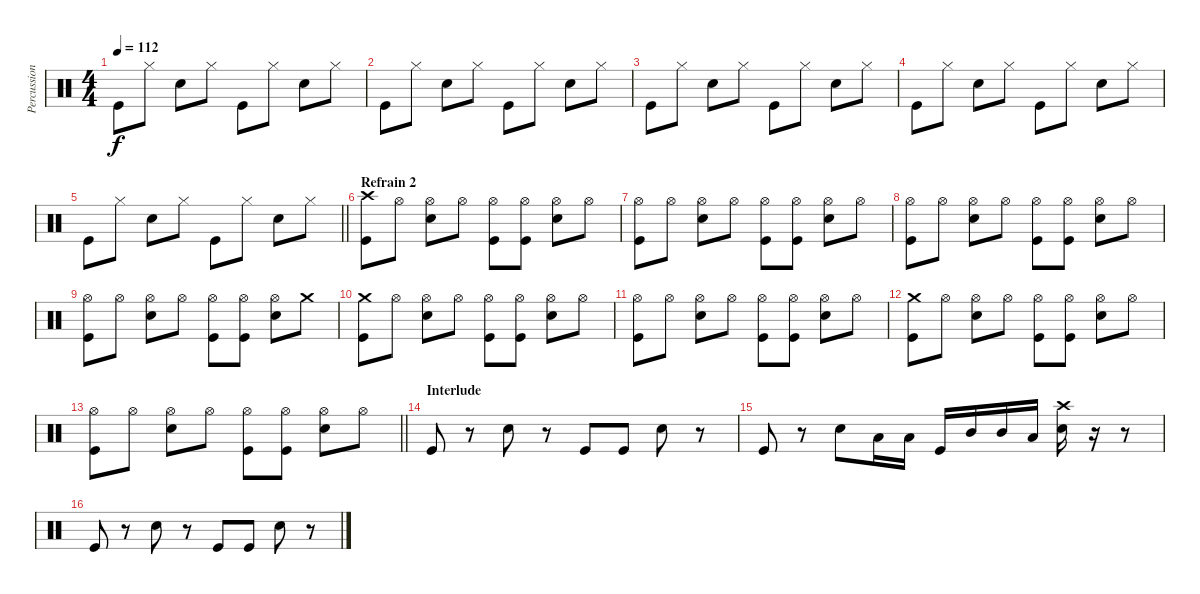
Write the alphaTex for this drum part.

\track ("Percussions" "Percussion") {instrument percussion}
\staff {score}
\articulation defaults
\ts (4 4)
\tempo 112
\clef neutral
\ks c "Kick (hit)".8{dy f} "Hi-Hat (closed)".8 "Snare (hit) 2".8 "Hi-Hat (closed)".8 "Kick (hit)".8 "Hi-Hat (closed)".8 "Snare (hit) 2".8 "Hi-Hat (closed)".8
|
"Kick (hit)".8 "Hi-Hat (closed)".8 "Snare (hit) 2".8 "Hi-Hat (closed)".8 "Kick (hit)".8 "Hi-Hat (closed)".8 "Snare (hit) 2".8 "Hi-Hat (closed)".8 |
"Kick (hit)".8 "Hi-Hat (closed)".8 "Snare (hit) 2".8 "Hi-Hat (closed)".8 "Kick (hit)".8 "Hi-Hat (closed)".8 "Snare (hit) 2".8 "Hi-Hat (closed)".8 |
"Kick (hit)".8 "Hi-Hat (closed)".8 "Snare (hit) 2".8 "Hi-Hat (closed)".8 "Kick (hit)".8 "Hi-Hat (closed)".8 "Snare (hit) 2".8 "Hi-Hat (closed)".8 |
\barLineRight lightlight "Kick (hit)".8 "Hi-Hat (closed)".8 "Snare (hit) 2".8 "Hi-Hat (closed)".8 "Kick (hit)".8 "Hi-Hat (closed)".8 "Snare (hit) 2".8 "Hi-Hat (closed)".8
|
\section ("" "Refrain 2")
("Crash high (hit)" "Kick (hit)").8 "Hi-Hat (open)".8 ("Hi-Hat (open)" "Snare (hit) 2").8 "Hi-Hat (open)".8 ("Hi-Hat (open)" "Kick (hit)").8 ("Hi-Hat (open)" "Kick (hit)").8 ("Hi-Hat (open)" "Snare (hit) 2").8 "Hi-Hat (open)".8 |
("Hi-Hat (open)" "Kick (hit)").8 "Hi-Hat (open)".8 ("Hi-Hat (open)" "Snare (hit) 2").8 "Hi-Hat (open)".8 ("Hi-Hat (open)" "Kick (hit)").8 ("Hi-Hat (open)" "Kick (hit)").8 ("Hi-Hat (open)" "Snare (hit) 2").8 "Hi-Hat (open)".8 |
("Hi-Hat (open)" "Kick (hit)").8 "Hi-Hat (open)".8 ("Hi-Hat (open)" "Snare (hit) 2").8 "Hi-Hat (open)".8 ("Hi-Hat (open)" "Kick (hit)").8 ("Hi-Hat (open)" "Kick (hit)").8 ("Hi-Hat (open)" "Snare (hit) 2").8 "Hi-Hat (open)".8 |
("Hi-Hat (open)" "Kick (hit)").8 "Hi-Hat (open)".8 ("Hi-Hat (open)" "Snare (hit) 2").8 "Hi-Hat (open)".8 ("Hi-Hat (open)" "Kick (hit)").8 ("Hi-Hat (open)" "Kick (hit)").8 ("Hi-Hat (open)" "Snare (hit) 2").8 "Crash medium (hit)".8 |
("Crash medium (hit)" "Kick (hit)").8 "Hi-Hat (open)".8 ("Hi-Hat (open)" "Snare (hit) 2").8 "Hi-Hat (open)".8 ("Hi-Hat (open)" "Kick (hit)").8 ("Hi-Hat (open)" "Kick (hit)").8 ("Hi-Hat (open)" "Snare (hit) 2").8 "Hi-Hat (open)".8 |
("Hi-Hat (open)" "Kick (hit)").8 "Hi-Hat (open)".8 ("Hi-Hat (open)" "Snare (hit) 2").8 "Hi-Hat (open)".8 ("Hi-Hat (open)" "Kick (hit)").8 ("Hi-Hat (open)" "Kick (hit)").8 ("Hi-Hat (open)" "Snare (hit) 2").8 "Hi-Hat (open)".8 |
("Crash medium (hit)" "Kick (hit)").8 "Hi-Hat (open)".8 ("Hi-Hat (open)" "Snare (hit) 2").8 "Hi-Hat (open)".8 ("Hi-Hat (open)" "Kick (hit)").8 ("Hi-Hat (open)" "Kick (hit)").8 ("Hi-Hat (open)" "Snare (hit) 2").8 "Hi-Hat (open)".8 |
\barLineRight lightlight
("Hi-Hat (open)" "Kick (hit)").8 "Hi-Hat (open)".8 ("Hi-Hat (open)" "Snare (hit) 2").8 "Hi-Hat (open)".8 ("Hi-Hat (open)" "Kick (hit)").8 ("Hi-Hat (open)" "Kick (hit)").8 ("Hi-Hat (open)" "Snare (hit) 2").8 "Hi-Hat (open)".8 |
\section ("" "Interlude")
"Kick (hit)".8 r.8 "Snare (hit) 2".8 r.8 "Kick (hit)".8 "Kick (hit)".8 "Snare (hit) 2".8 r.8 |
"Kick (hit)".8 r.8 "Snare (hit) 2".8 "Low Tom (hit)".16 "Low Tom (hit)".16 "Kick (hit)".16 "Mid Tom (hit)".16 "Mid Tom (hit)".16 "Low Tom (hit)".16 ("Crash high (hit)" "Snare (hit) 2").16 r.16 r.8 |
"Kick (hit)".8 r.8 "Snare (hit) 2".8 r.8 "Kick (hit)".8 "Kick (hit)".8 "Snare (hit) 2".8 r.8
